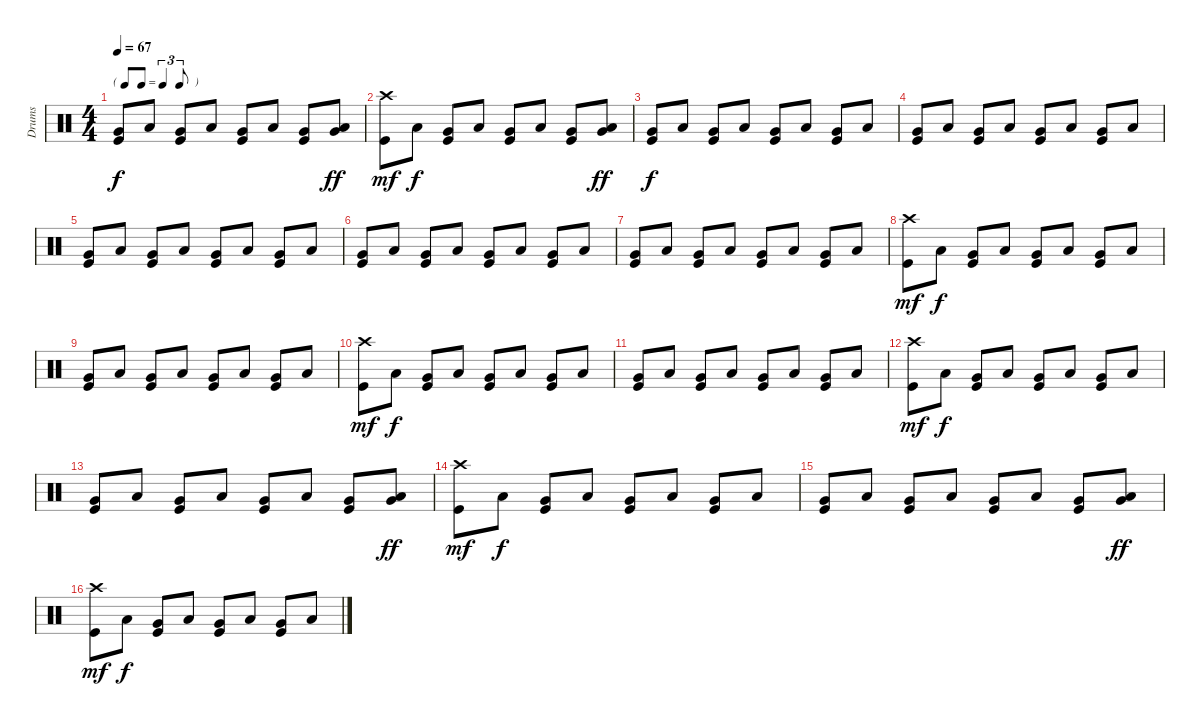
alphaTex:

\track (" Drums " " Drums ") {instrument percussion}
\staff {score}
\articulation defaults
\ts (4 4)
\tf triplet8th
\tempo 67
\clef neutral
\ks c
("Very Low Tom (hit)" "Kick (hit)").8{dy f} "Low Floor Tom (hit)".8 ("Very Low Tom (hit)" "Kick (hit)").8 "Low Floor Tom (hit)".8 ("Very Low Tom (hit)" "Kick (hit)").8 "Low Floor Tom (hit)".8 ("Very Low Tom (hit)" "Kick (hit)").8 ("Low Floor Tom (hit)" "Very Low Tom (hit)").8{dy ff} |
("Crash high (hit)" "Kick (hit)").8{dy mf} "Low Floor Tom (hit)".8{dy f} ("Very Low Tom (hit)" "Kick (hit)").8 "Low Floor Tom (hit)".8 ("Very Low Tom (hit)" "Kick (hit)").8 "Low Floor Tom (hit)".8 ("Very Low Tom (hit)" "Kick (hit)").8 ("Low Floor Tom (hit)" "Very Low Tom (hit)").8{dy ff} |
("Very Low Tom (hit)" "Kick (hit)").8{dy f} "Low Floor Tom (hit)".8 ("Very Low Tom (hit)" "Kick (hit)").8 "Low Floor Tom (hit)".8 ("Very Low Tom (hit)" "Kick (hit)").8 "Low Floor Tom (hit)".8 ("Very Low Tom (hit)" "Kick (hit)").8 "Low Floor Tom (hit)".8 |
("Very Low Tom (hit)" "Kick (hit)").8 "Low Floor Tom (hit)".8 ("Very Low Tom (hit)" "Kick (hit)").8 "Low Floor Tom (hit)".8 ("Very Low Tom (hit)" "Kick (hit)").8 "Low Floor Tom (hit)".8 ("Very Low Tom (hit)" "Kick (hit)").8 "Low Floor Tom (hit)".8 |
("Very Low Tom (hit)" "Kick (hit)").8 "Low Floor Tom (hit)".8 ("Very Low Tom (hit)" "Kick (hit)").8 "Low Floor Tom (hit)".8 ("Very Low Tom (hit)" "Kick (hit)").8 "Low Floor Tom (hit)".8 ("Very Low Tom (hit)" "Kick (hit)").8 "Low Floor Tom (hit)".8 |
("Very Low Tom (hit)" "Kick (hit)").8 "Low Floor Tom (hit)".8 ("Very Low Tom (hit)" "Kick (hit)").8 "Low Floor Tom (hit)".8 ("Very Low Tom (hit)" "Kick (hit)").8 "Low Floor Tom (hit)".8 ("Very Low Tom (hit)" "Kick (hit)").8 "Low Floor Tom (hit)".8 |
("Very Low Tom (hit)" "Kick (hit)").8 "Low Floor Tom (hit)".8 ("Very Low Tom (hit)" "Kick (hit)").8 "Low Floor Tom (hit)".8 ("Very Low Tom (hit)" "Kick (hit)").8 "Low Floor Tom (hit)".8 ("Very Low Tom (hit)" "Kick (hit)").8 "Low Floor Tom (hit)".8 |
("Crash high (hit)" "Kick (hit)").8{dy mf} "Low Floor Tom (hit)".8{dy f} ("Very Low Tom (hit)" "Kick (hit)").8 "Low Floor Tom (hit)".8 ("Very Low Tom (hit)" "Kick (hit)").8 "Low Floor Tom (hit)".8 ("Very Low Tom (hit)" "Kick (hit)").8 "Low Floor Tom (hit)".8 |
("Very Low Tom (hit)" "Kick (hit)").8 "Low Floor Tom (hit)".8 ("Very Low Tom (hit)" "Kick (hit)").8 "Low Floor Tom (hit)".8 ("Very Low Tom (hit)" "Kick (hit)").8 "Low Floor Tom (hit)".8 ("Very Low Tom (hit)" "Kick (hit)").8 "Low Floor Tom (hit)".8 |
("Crash high (hit)" "Kick (hit)").8{dy mf} "Low Floor Tom (hit)".8{dy f} ("Very Low Tom (hit)" "Kick (hit)").8 "Low Floor Tom (hit)".8 ("Very Low Tom (hit)" "Kick (hit)").8 "Low Floor Tom (hit)".8 ("Very Low Tom (hit)" "Kick (hit)").8 "Low Floor Tom (hit)".8 |
("Very Low Tom (hit)" "Kick (hit)").8 "Low Floor Tom (hit)".8 ("Very Low Tom (hit)" "Kick (hit)").8 "Low Floor Tom (hit)".8 ("Very Low Tom (hit)" "Kick (hit)").8 "Low Floor Tom (hit)".8 ("Very Low Tom (hit)" "Kick (hit)").8 "Low Floor Tom (hit)".8 |
("Crash high (hit)" "Kick (hit)").8{dy mf} "Low Floor Tom (hit)".8{dy f} ("Very Low Tom (hit)" "Kick (hit)").8 "Low Floor Tom (hit)".8 ("Very Low Tom (hit)" "Kick (hit)").8 "Low Floor Tom (hit)".8 ("Very Low Tom (hit)" "Kick (hit)").8 "Low Floor Tom (hit)".8 |
("Very Low Tom (hit)" "Kick (hit)").8 "Low Floor Tom (hit)".8 ("Very Low Tom (hit)" "Kick (hit)").8 "Low Floor Tom (hit)".8 ("Very Low Tom (hit)" "Kick (hit)").8 "Low Floor Tom (hit)".8 ("Very Low Tom (hit)" "Kick (hit)").8 ("Low Floor Tom (hit)" "Very Low Tom (hit)").8{dy ff} |
("Crash high (hit)" "Kick (hit)").8{dy mf} "Low Floor Tom (hit)".8{dy f} ("Very Low Tom (hit)" "Kick (hit)").8 "Low Floor Tom (hit)".8 ("Very Low Tom (hit)" "Kick (hit)").8 "Low Floor Tom (hit)".8 ("Very Low Tom (hit)" "Kick (hit)").8 "Low Floor Tom (hit)".8 |
("Very Low Tom (hit)" "Kick (hit)").8 "Low Floor Tom (hit)".8 ("Very Low Tom (hit)" "Kick (hit)").8 "Low Floor Tom (hit)".8 ("Very Low Tom (hit)" "Kick (hit)").8 "Low Floor Tom (hit)".8 ("Very Low Tom (hit)" "Kick (hit)").8 ("Very Low Tom (hit)" "Low Floor Tom (hit)").8{dy ff} |
("Crash high (hit)" "Kick (hit)").8{dy mf} "Low Floor Tom (hit)".8{dy f} ("Very Low Tom (hit)" "Kick (hit)").8 "Low Floor Tom (hit)".8 ("Very Low Tom (hit)" "Kick (hit)").8 "Low Floor Tom (hit)".8 ("Very Low Tom (hit)" "Kick (hit)").8 "Low Floor Tom (hit)".8
